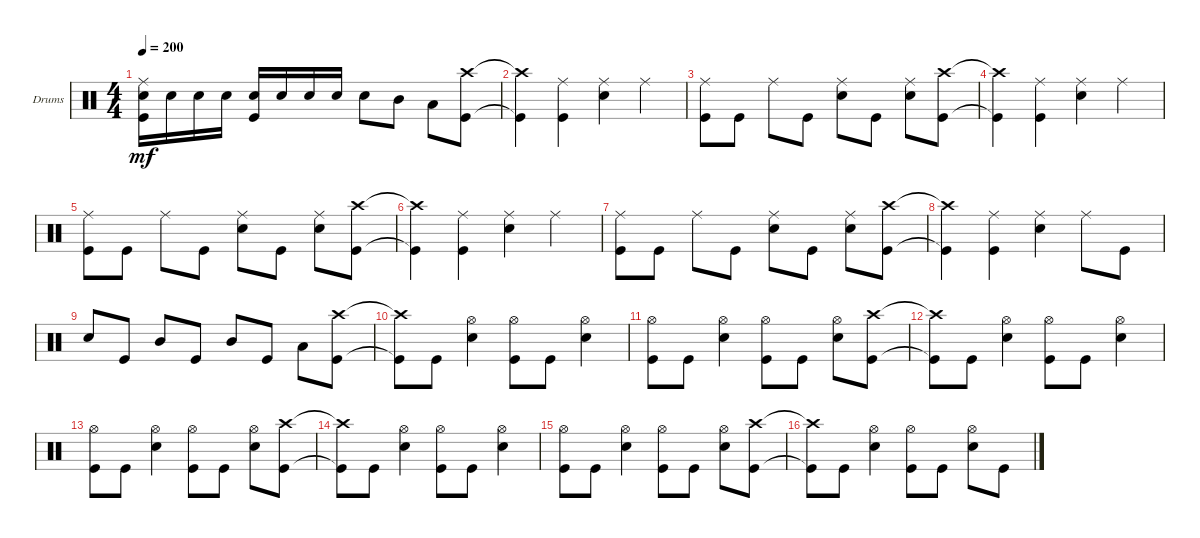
\bracketExtendMode groupsimilarinstruments
\firstSystemTrackNameOrientation horizontal
\otherSystemsTrackNameOrientation horizontal
\track ("Drums" "Drums") {instrument percussion}
\staff {score}
\articulation defaults
\ts (4 4)
\tempo 200
\clef neutral
\ks c
("Kick (hit)" "Snare (hit) 2" "Ride (middle)").16{dy mf} "Snare (hit) 2".16 "Snare (hit) 2".16 "Snare (hit) 2".16 ("Kick (hit)" "Snare (hit) 2").16 "Snare (hit) 2".16 "Snare (hit) 2".16 "Snare (hit) 2".16 "Snare (hit) 2".8 "Mid Tom (hit)".8 "Low Tom (hit)".8 ("Kick (hit)" "Crash high (hit)").8 |
("Kick (hit)"{t} "Crash high (hit)"{t}).4 ("Kick (hit)" "Ride (middle)").4 ("Snare (hit) 2" "Ride (middle)").4 "Ride (middle)".4 |
("Kick (hit)" "Ride (middle)").8 "Kick (hit)".8 "Ride (middle)".8 "Kick (hit)".8 ("Snare (hit) 2" "Ride (middle)").8 "Kick (hit)".8 ("Snare (hit) 2" "Ride (middle)").8 ("Kick (hit)" "Crash high (hit)").8 |
("Kick (hit)"{t} "Crash high (hit)"{t}).4 ("Kick (hit)" "Ride (middle)").4 ("Snare (hit) 2" "Ride (middle)").4 "Ride (middle)".4 |
("Kick (hit)" "Ride (middle)").8 "Kick (hit)".8 "Ride (middle)".8 "Kick (hit)".8 ("Snare (hit) 2" "Ride (middle)").8 "Kick (hit)".8 ("Snare (hit) 2" "Ride (middle)").8 ("Kick (hit)" "Crash high (hit)").8 |
("Kick (hit)"{t} "Crash high (hit)"{t}).4 ("Kick (hit)" "Ride (middle)").4 ("Snare (hit) 2" "Ride (middle)").4 "Ride (middle)".4 |
("Kick (hit)" "Ride (middle)").8 "Kick (hit)".8 "Ride (middle)".8 "Kick (hit)".8 ("Snare (hit) 2" "Ride (middle)").8 "Kick (hit)".8 ("Snare (hit) 2" "Ride (middle)").8 ("Kick (hit)" "Crash high (hit)").8 |
("Kick (hit)"{t} "Crash high (hit)"{t}).4 ("Kick (hit)" "Ride (middle)").4 ("Snare (hit) 2" "Ride (middle)").4 "Ride (middle)".8 "Kick (hit)".8 |
"Snare (hit) 2".8 "Kick (hit)".8 "Mid Tom (hit)".8 "Kick (hit)".8 "Mid Tom (hit)".8 "Kick (hit)".8 "Low Tom (hit)".8 ("Kick (hit)" "Crash high (hit)").8 |
("Kick (hit)"{t} "Crash high (hit)"{t}).8 "Kick (hit)".8 ("Snare (hit) 2" "Hi-Hat (open)").4 ("Kick (hit)" "Hi-Hat (open)").8 "Kick (hit)".8 ("Snare (hit) 2" "Hi-Hat (open)").4 |
("Kick (hit)" "Hi-Hat (open)").8 "Kick (hit)".8 ("Snare (hit) 2" "Hi-Hat (open)").4 ("Kick (hit)" "Hi-Hat (open)").8 "Kick (hit)".8 ("Snare (hit) 2" "Hi-Hat (open)").8 ("Kick (hit)" "Crash high (hit)").8 |
("Kick (hit)"{t} "Crash high (hit)"{t}).8 "Kick (hit)".8 ("Snare (hit) 2" "Hi-Hat (open)").4 ("Kick (hit)" "Hi-Hat (open)").8 "Kick (hit)".8 ("Snare (hit) 2" "Hi-Hat (open)").4 |
("Kick (hit)" "Hi-Hat (open)").8 "Kick (hit)".8 ("Snare (hit) 2" "Hi-Hat (open)").4 ("Kick (hit)" "Hi-Hat (open)").8 "Kick (hit)".8 ("Snare (hit) 2" "Hi-Hat (open)").8 ("Kick (hit)" "Crash high (hit)").8 |
("Kick (hit)"{t} "Crash high (hit)"{t}).8 "Kick (hit)".8 ("Snare (hit) 2" "Hi-Hat (open)").4 ("Kick (hit)" "Hi-Hat (open)").8 "Kick (hit)".8 ("Snare (hit) 2" "Hi-Hat (open)").4 |
("Kick (hit)" "Hi-Hat (open)").8 "Kick (hit)".8 ("Snare (hit) 2" "Hi-Hat (open)").4 ("Kick (hit)" "Hi-Hat (open)").8 "Kick (hit)".8 ("Snare (hit) 2" "Hi-Hat (open)").8 ("Kick (hit)" "Crash high (hit)").8 |
("Kick (hit)"{t} "Crash high (hit)"{t}).8 "Kick (hit)".8 ("Snare (hit) 2" "Hi-Hat (open)").4 ("Kick (hit)" "Hi-Hat (open)").8 "Kick (hit)".8 ("Snare (hit) 2" "Hi-Hat (open)").8 "Kick (hit)".8
